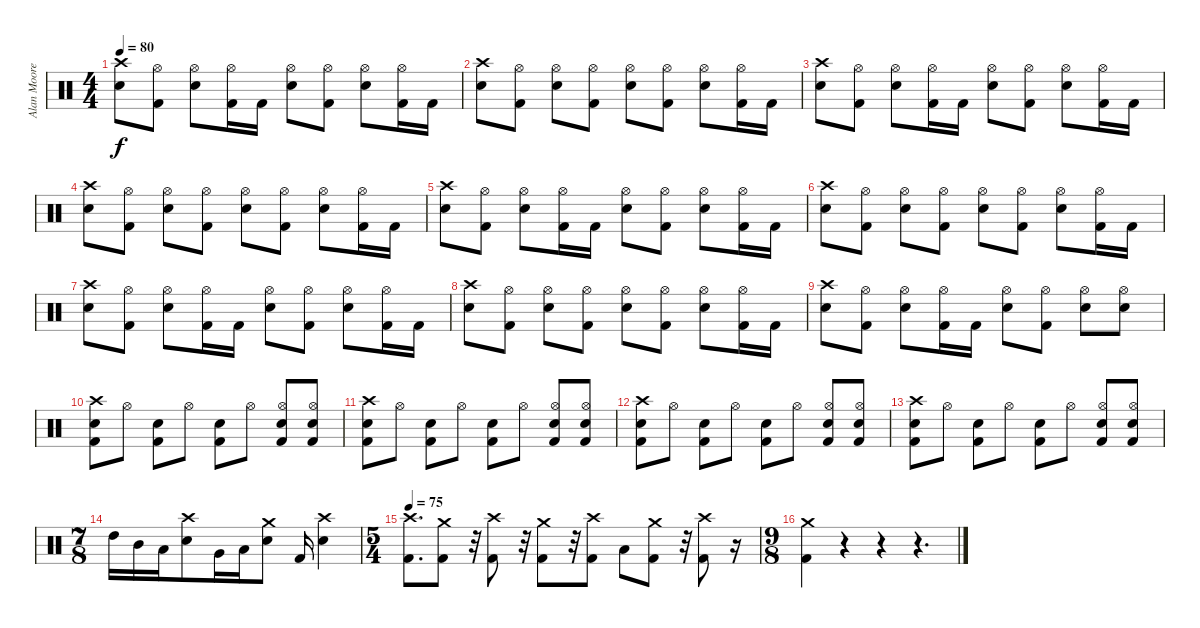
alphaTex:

\track ("Alan Moore" "Alan Moore") {instrument percussion}
\staff {score}
\articulation defaults
\ts (4 4)
\tempo 80
\clef neutral
\ks c
("Snare (hit) 2" "Crash high (hit)").8{dy f} ("Hi-Hat (open)" "Kick (hit) 2").8 ("Snare (hit) 2" "Hi-Hat (open)").8 ("Hi-Hat (open)" "Kick (hit) 2").16 "Kick (hit) 2".16 ("Snare (hit) 2" "Hi-Hat (open)").8 ("Hi-Hat (open)" "Kick (hit) 2").8 ("Snare (hit) 2" "Hi-Hat (open)").8 ("Hi-Hat (open)" "Kick (hit) 2").16 "Kick (hit) 2".16 |
("Snare (hit) 2" "Crash high (hit)").8 ("Hi-Hat (open)" "Kick (hit) 2").8 ("Snare (hit) 2" "Hi-Hat (open)").8 ("Hi-Hat (open)" "Kick (hit) 2").8 ("Snare (hit) 2" "Hi-Hat (open)").8 ("Hi-Hat (open)" "Kick (hit) 2").8 ("Snare (hit) 2" "Hi-Hat (open)").8 ("Hi-Hat (open)" "Kick (hit) 2").16 "Kick (hit) 2".16 |
("Snare (hit) 2" "Crash high (hit)").8 ("Hi-Hat (open)" "Kick (hit) 2").8 ("Snare (hit) 2" "Hi-Hat (open)").8 ("Hi-Hat (open)" "Kick (hit) 2").16 "Kick (hit) 2".16 ("Snare (hit) 2" "Hi-Hat (open)").8 ("Hi-Hat (open)" "Kick (hit) 2").8 ("Snare (hit) 2" "Hi-Hat (open)").8 ("Hi-Hat (open)" "Kick (hit) 2").16 "Kick (hit) 2".16 |
("Snare (hit) 2" "Crash high (hit)").8 ("Hi-Hat (open)" "Kick (hit) 2").8 ("Snare (hit) 2" "Hi-Hat (open)").8 ("Hi-Hat (open)" "Kick (hit) 2").8 ("Snare (hit) 2" "Hi-Hat (open)").8 ("Hi-Hat (open)" "Kick (hit) 2").8 ("Snare (hit) 2" "Hi-Hat (open)").8 ("Hi-Hat (open)" "Kick (hit) 2").16 "Kick (hit) 2".16 |
("Snare (hit) 2" "Crash high (hit)").8 ("Hi-Hat (open)" "Kick (hit) 2").8 ("Snare (hit) 2" "Hi-Hat (open)").8 ("Hi-Hat (open)" "Kick (hit) 2").16 "Kick (hit) 2".16 ("Snare (hit) 2" "Hi-Hat (open)").8 ("Hi-Hat (open)" "Kick (hit) 2").8 ("Snare (hit) 2" "Hi-Hat (open)").8 ("Hi-Hat (open)" "Kick (hit) 2").16 "Kick (hit) 2".16 |
("Snare (hit) 2" "Crash high (hit)").8 ("Hi-Hat (open)" "Kick (hit) 2").8 ("Snare (hit) 2" "Hi-Hat (open)").8 ("Hi-Hat (open)" "Kick (hit) 2").8 ("Snare (hit) 2" "Hi-Hat (open)").8 ("Hi-Hat (open)" "Kick (hit) 2").8 ("Snare (hit) 2" "Hi-Hat (open)").8 ("Hi-Hat (open)" "Kick (hit) 2").16 "Kick (hit) 2".16 |
("Snare (hit) 2" "Crash high (hit)").8 ("Hi-Hat (open)" "Kick (hit) 2").8 ("Snare (hit) 2" "Hi-Hat (open)").8 ("Hi-Hat (open)" "Kick (hit) 2").16 "Kick (hit) 2".16 ("Snare (hit) 2" "Hi-Hat (open)").8 ("Hi-Hat (open)" "Kick (hit) 2").8 ("Snare (hit) 2" "Hi-Hat (open)").8 ("Hi-Hat (open)" "Kick (hit) 2").16 "Kick (hit) 2".16 |
("Snare (hit) 2" "Crash high (hit)").8 ("Hi-Hat (open)" "Kick (hit) 2").8 ("Snare (hit) 2" "Hi-Hat (open)").8 ("Hi-Hat (open)" "Kick (hit) 2").8 ("Snare (hit) 2" "Hi-Hat (open)").8 ("Hi-Hat (open)" "Kick (hit) 2").8 ("Snare (hit) 2" "Hi-Hat (open)").8 ("Hi-Hat (open)" "Kick (hit) 2").16 "Kick (hit) 2".16 |
("Snare (hit) 2" "Crash high (hit)").8 ("Hi-Hat (open)" "Kick (hit) 2").8 ("Snare (hit) 2" "Hi-Hat (open)").8 ("Hi-Hat (open)" "Kick (hit) 2").16 "Kick (hit) 2".16 ("Snare (hit) 2" "Hi-Hat (open)").8 ("Hi-Hat (open)" "Kick (hit) 2").8 ("Snare (hit) 2" "Hi-Hat (open)").8 ("Snare (hit) 2" "Hi-Hat (open)").8 |
("Snare (hit) 2" "Crash high (hit)" "Kick (hit) 2").8 "Hi-Hat (open)".8 ("Snare (hit) 2" "Kick (hit) 2").8 "Hi-Hat (open)".8 ("Snare (hit) 2" "Kick (hit) 2").8 "Hi-Hat (open)".8 ("Snare (hit) 2" "Hi-Hat (open)" "Kick (hit) 2").8 ("Snare (hit) 2" "Hi-Hat (open)" "Kick (hit) 2").8 |
("Snare (hit) 2" "Crash high (hit)" "Kick (hit) 2").8 "Hi-Hat (open)".8 ("Snare (hit) 2" "Kick (hit) 2").8 "Hi-Hat (open)".8 ("Snare (hit) 2" "Kick (hit) 2").8 "Hi-Hat (open)".8 ("Snare (hit) 2" "Hi-Hat (open)" "Kick (hit) 2").8 ("Snare (hit) 2" "Hi-Hat (open)" "Kick (hit) 2").8 |
("Snare (hit) 2" "Crash high (hit)" "Kick (hit) 2").8 "Hi-Hat (open)".8 ("Snare (hit) 2" "Kick (hit) 2").8 "Hi-Hat (open)".8 ("Snare (hit) 2" "Kick (hit) 2").8 "Hi-Hat (open)".8 ("Snare (hit) 2" "Hi-Hat (open)" "Kick (hit) 2").8 ("Snare (hit) 2" "Hi-Hat (open)" "Kick (hit) 2").8 |
("Snare (hit) 2" "Crash high (hit)" "Kick (hit) 2").8 "Hi-Hat (open)".8 ("Snare (hit) 2" "Kick (hit) 2").8 "Hi-Hat (open)".8 ("Snare (hit) 2" "Kick (hit) 2").8 "Hi-Hat (open)".8 ("Snare (hit) 2" "Hi-Hat (open)" "Kick (hit) 2").8 ("Snare (hit) 2" "Hi-Hat (open)" "Kick (hit) 2").8 |
\ts (7 8)
"High Tom (hit)".16 "Mid Tom (hit)".16 "Low Tom (hit)".16 ("Crash high (hit)" "Snare (hit) 2").8 "Very Low Tom (hit)".16 "Low Floor Tom (hit)".16 ("Crash medium (hit)" "Snare (hit) 2").8 "Kick (hit) 2".16 ("Crash high (hit)" "Snare (hit) 2").4 |
\ts (5 4)
\tempo 75
("Crash high (hit)" "Kick (hit) 2").8{d} ("Crash medium (hit)" "Kick (hit) 2").8 r.32 ("Crash high (hit)" "Kick (hit) 2").8 r.32 ("Crash medium (hit)" "Kick (hit) 2").8 r.32 ("Crash high (hit)" "Kick (hit) 2").8 "Low Tom (hit)".8 ("Crash medium (hit)" "Kick (hit) 2").8 r.32 ("Crash high (hit)" "Kick (hit) 2").8 r.16 |
\ts (9 8)
("Crash medium (hit)" "Kick (hit) 2").4 r.4 r.4 r.4{d}
